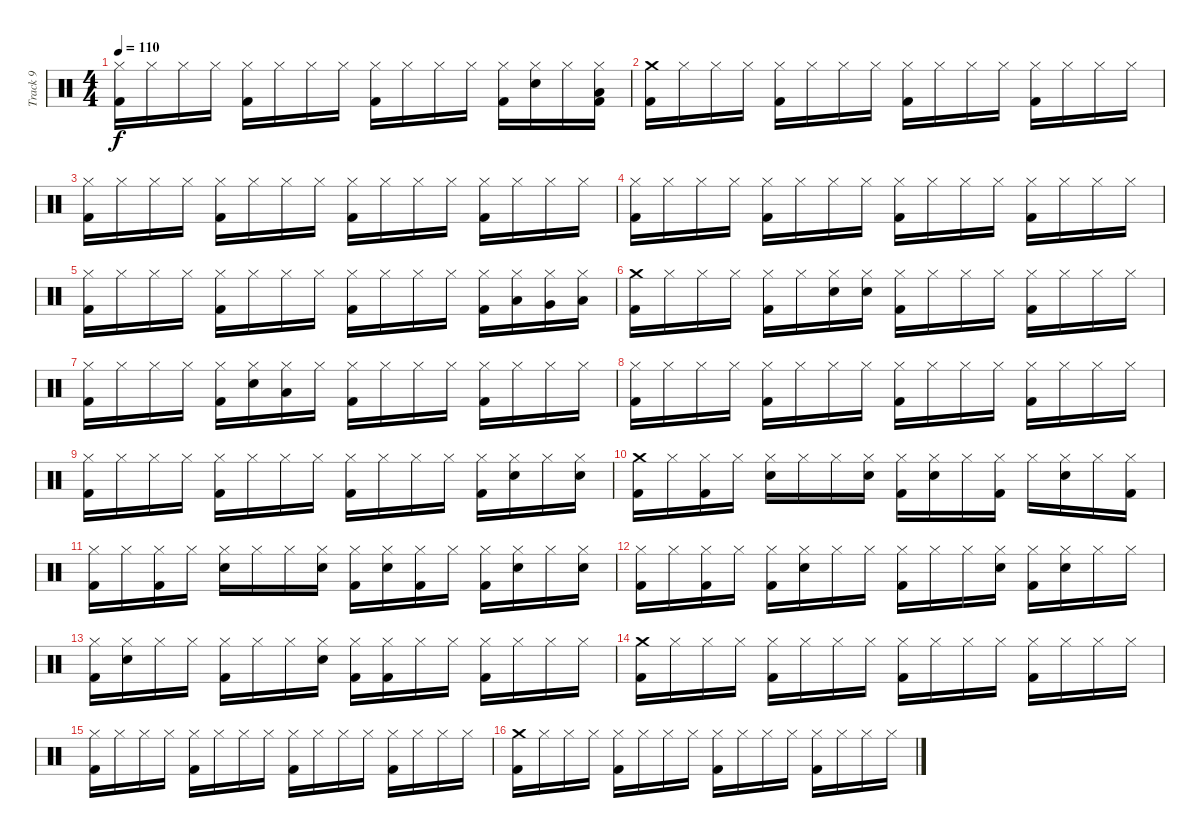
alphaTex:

\track ("Track 9" "Track 9") {instrument percussion}
\staff {score}
\articulation defaults
\ts (4 4)
\tempo 110
\clef neutral
\ks c
("Hi-Hat (closed)" "Kick (hit) 2").16{dy f} "Hi-Hat (closed)".16 "Hi-Hat (closed)".16 "Hi-Hat (closed)".16 ("Hi-Hat (closed)" "Kick (hit) 2").16 "Hi-Hat (closed)".16 "Hi-Hat (closed)".16 "Hi-Hat (closed)".16 ("Hi-Hat (closed)" "Kick (hit) 2").16 "Hi-Hat (closed)".16 "Hi-Hat (closed)".16 "Hi-Hat (closed)".16 ("Hi-Hat (closed)" "Kick (hit) 2").16 ("Hi-Hat (closed)" "Snare (hit) 2").16 "Hi-Hat (closed)".16 ("Hi-Hat (closed)" "Low Floor Tom (hit)" "Kick (hit) 2").16 |
("Crash medium (hit)" "Kick (hit) 2").16 "Hi-Hat (closed)".16 "Hi-Hat (closed)".16 "Hi-Hat (closed)".16 ("Hi-Hat (closed)" "Kick (hit) 2").16 "Hi-Hat (closed)".16 "Hi-Hat (closed)".16 "Hi-Hat (closed)".16 ("Hi-Hat (closed)" "Kick (hit) 2").16 "Hi-Hat (closed)".16 "Hi-Hat (closed)".16 "Hi-Hat (closed)".16 ("Hi-Hat (closed)" "Kick (hit) 2").16 "Hi-Hat (closed)".16 "Hi-Hat (closed)".16 "Hi-Hat (closed)".16 |
("Hi-Hat (closed)" "Kick (hit) 2").16 "Hi-Hat (closed)".16 "Hi-Hat (closed)".16 "Hi-Hat (closed)".16 ("Hi-Hat (closed)" "Kick (hit) 2").16 "Hi-Hat (closed)".16 "Hi-Hat (closed)".16 "Hi-Hat (closed)".16 ("Hi-Hat (closed)" "Kick (hit) 2").16 "Hi-Hat (closed)".16 "Hi-Hat (closed)".16 "Hi-Hat (closed)".16 ("Hi-Hat (closed)" "Kick (hit) 2").16 "Hi-Hat (closed)".16 "Hi-Hat (closed)".16 "Hi-Hat (closed)".16 |
("Hi-Hat (closed)" "Kick (hit) 2").16 "Hi-Hat (closed)".16 "Hi-Hat (closed)".16 "Hi-Hat (closed)".16 ("Hi-Hat (closed)" "Kick (hit) 2").16 "Hi-Hat (closed)".16 "Hi-Hat (closed)".16 "Hi-Hat (closed)".16 ("Hi-Hat (closed)" "Kick (hit) 2").16 "Hi-Hat (closed)".16 "Hi-Hat (closed)".16 "Hi-Hat (closed)".16 ("Hi-Hat (closed)" "Kick (hit) 2").16 "Hi-Hat (closed)".16 "Hi-Hat (closed)".16 "Hi-Hat (closed)".16 |
("Hi-Hat (closed)" "Kick (hit) 2").16 "Hi-Hat (closed)".16 "Hi-Hat (closed)".16 "Hi-Hat (closed)".16 ("Hi-Hat (closed)" "Kick (hit) 2").16 "Hi-Hat (closed)".16 "Hi-Hat (closed)".16 "Hi-Hat (closed)".16 ("Hi-Hat (closed)" "Kick (hit) 2").16 "Hi-Hat (closed)".16 "Hi-Hat (closed)".16 "Hi-Hat (closed)".16 ("Hi-Hat (closed)" "Kick (hit) 2").16 ("Hi-Hat (closed)" "Low Tom (hit)").16 ("Hi-Hat (closed)" "Very Low Tom (hit)").16 ("Hi-Hat (closed)" "Low Floor Tom (hit)").16 |
("Crash medium (hit)" "Kick (hit) 2").16 "Hi-Hat (closed)".16 "Hi-Hat (closed)".16 "Hi-Hat (closed)".16 ("Hi-Hat (closed)" "Kick (hit) 2").16 "Hi-Hat (closed)".16 ("Hi-Hat (closed)" "Snare (hit) 2").16 ("Hi-Hat (closed)" "Snare (hit) 2").16 ("Hi-Hat (closed)" "Kick (hit) 2").16 "Hi-Hat (closed)".16 "Hi-Hat (closed)".16 "Hi-Hat (closed)".16 ("Hi-Hat (closed)" "Kick (hit) 2").16 "Hi-Hat (closed)".16 "Hi-Hat (closed)".16 "Hi-Hat (closed)".16 |
("Hi-Hat (closed)" "Kick (hit) 2").16 "Hi-Hat (closed)".16 "Hi-Hat (closed)".16 "Hi-Hat (closed)".16 ("Hi-Hat (closed)" "Kick (hit) 2").16 ("Hi-Hat (closed)" "Snare (hit) 2").16 ("Hi-Hat (closed)" "Low Floor Tom (hit)").16 "Hi-Hat (closed)".16 ("Hi-Hat (closed)" "Kick (hit) 2").16 "Hi-Hat (closed)".16 "Hi-Hat (closed)".16 "Hi-Hat (closed)".16 ("Hi-Hat (closed)" "Kick (hit) 2").16 "Hi-Hat (closed)".16 "Hi-Hat (closed)".16 "Hi-Hat (closed)".16 |
("Hi-Hat (closed)" "Kick (hit) 2").16 "Hi-Hat (closed)".16 "Hi-Hat (closed)".16 "Hi-Hat (closed)".16 ("Hi-Hat (closed)" "Kick (hit) 2").16 "Hi-Hat (closed)".16 "Hi-Hat (closed)".16 "Hi-Hat (closed)".16 ("Hi-Hat (closed)" "Kick (hit) 2").16 "Hi-Hat (closed)".16 "Hi-Hat (closed)".16 "Hi-Hat (closed)".16 ("Hi-Hat (closed)" "Kick (hit) 2").16 "Hi-Hat (closed)".16 "Hi-Hat (closed)".16 "Hi-Hat (closed)".16 |
("Hi-Hat (closed)" "Kick (hit) 2").16 "Hi-Hat (closed)".16 "Hi-Hat (closed)".16 "Hi-Hat (closed)".16 ("Hi-Hat (closed)" "Kick (hit) 2").16 "Hi-Hat (closed)".16 "Hi-Hat (closed)".16 "Hi-Hat (closed)".16 ("Hi-Hat (closed)" "Kick (hit) 2").16 "Hi-Hat (closed)".16 "Hi-Hat (closed)".16 "Hi-Hat (closed)".16 ("Hi-Hat (closed)" "Kick (hit) 2").16 ("Hi-Hat (closed)" "Snare (hit) 2").16 "Hi-Hat (closed)".16 ("Hi-Hat (closed)" "Snare (hit) 2").16 |
("Crash medium (hit)" "Kick (hit) 2").16 "Hi-Hat (closed)".16 ("Hi-Hat (closed)" "Kick (hit) 2").16 "Hi-Hat (closed)".16 ("Hi-Hat (closed)" "Snare (hit) 2").16 "Hi-Hat (closed)".16 "Hi-Hat (closed)".16 ("Hi-Hat (closed)" "Snare (hit) 2").16 ("Hi-Hat (closed)" "Kick (hit) 2").16 ("Hi-Hat (closed)" "Snare (hit) 2").16 "Hi-Hat (closed)".16 ("Hi-Hat (closed)" "Kick (hit) 2").16 "Hi-Hat (closed)".16 ("Hi-Hat (closed)" "Snare (hit) 2").16 "Hi-Hat (closed)".16 ("Hi-Hat (closed)" "Kick (hit) 2").16 |
("Hi-Hat (closed)" "Kick (hit) 2").16 "Hi-Hat (closed)".16 ("Hi-Hat (closed)" "Kick (hit) 2").16 "Hi-Hat (closed)".16 ("Hi-Hat (closed)" "Snare (hit) 2").16 "Hi-Hat (closed)".16 "Hi-Hat (closed)".16 ("Hi-Hat (closed)" "Snare (hit) 2").16 ("Hi-Hat (closed)" "Kick (hit) 2").16 ("Hi-Hat (closed)" "Snare (hit) 2").16 ("Hi-Hat (closed)" "Kick (hit) 2").16 "Hi-Hat (closed)".16 ("Hi-Hat (closed)" "Kick (hit) 2").16 ("Hi-Hat (closed)" "Snare (hit) 2").16 "Hi-Hat (closed)".16 ("Hi-Hat (closed)" "Snare (hit) 2").16 |
("Hi-Hat (closed)" "Kick (hit) 2").16 "Hi-Hat (closed)".16 ("Hi-Hat (closed)" "Kick (hit) 2").16 "Hi-Hat (closed)".16 ("Hi-Hat (closed)" "Kick (hit) 2").16 ("Hi-Hat (closed)" "Snare (hit) 2").16 "Hi-Hat (closed)".16 "Hi-Hat (closed)".16 ("Hi-Hat (closed)" "Kick (hit) 2").16 "Hi-Hat (closed)".16 "Hi-Hat (closed)".16 ("Hi-Hat (closed)" "Snare (hit) 2").16 ("Hi-Hat (closed)" "Kick (hit) 2").16 ("Hi-Hat (closed)" "Snare (hit) 2").16 "Hi-Hat (closed)".16 "Hi-Hat (closed)".16 |
("Hi-Hat (closed)" "Kick (hit) 2").16 ("Hi-Hat (closed)" "Snare (hit) 2").16 "Hi-Hat (closed)".16 "Hi-Hat (closed)".16 ("Hi-Hat (closed)" "Kick (hit) 2").16 "Hi-Hat (closed)".16 "Hi-Hat (closed)".16 ("Hi-Hat (closed)" "Snare (hit) 2").16 ("Hi-Hat (closed)" "Kick (hit) 2").16 ("Hi-Hat (closed)" "Kick (hit) 2").16 "Hi-Hat (closed)".16 "Hi-Hat (closed)".16 ("Hi-Hat (closed)" "Kick (hit) 2").16 "Hi-Hat (closed)".16 "Hi-Hat (closed)".16 "Hi-Hat (closed)".16 |
("Crash medium (hit)" "Kick (hit) 2").16 "Hi-Hat (closed)".16 "Hi-Hat (closed)".16 "Hi-Hat (closed)".16 ("Hi-Hat (closed)" "Kick (hit) 2").16 "Hi-Hat (closed)".16 "Hi-Hat (closed)".16 "Hi-Hat (closed)".16 ("Hi-Hat (closed)" "Kick (hit) 2").16 "Hi-Hat (closed)".16 "Hi-Hat (closed)".16 "Hi-Hat (closed)".16 ("Hi-Hat (closed)" "Kick (hit) 2").16 "Hi-Hat (closed)".16 "Hi-Hat (closed)".16 "Hi-Hat (closed)".16 |
("Hi-Hat (closed)" "Kick (hit) 2").16 "Hi-Hat (closed)".16 "Hi-Hat (closed)".16 "Hi-Hat (closed)".16 ("Hi-Hat (closed)" "Kick (hit) 2").16 "Hi-Hat (closed)".16 "Hi-Hat (closed)".16 "Hi-Hat (closed)".16 ("Hi-Hat (closed)" "Kick (hit) 2").16 "Hi-Hat (closed)".16 "Hi-Hat (closed)".16 "Hi-Hat (closed)".16 ("Hi-Hat (closed)" "Kick (hit) 2").16 "Hi-Hat (closed)".16 "Hi-Hat (closed)".16 "Hi-Hat (closed)".16 |
("Crash medium (hit)" "Kick (hit) 2").16 "Hi-Hat (closed)".16 "Hi-Hat (closed)".16 "Hi-Hat (closed)".16 ("Hi-Hat (closed)" "Kick (hit) 2").16 "Hi-Hat (closed)".16 "Hi-Hat (closed)".16 "Hi-Hat (closed)".16 ("Hi-Hat (closed)" "Kick (hit) 2").16 "Hi-Hat (closed)".16 "Hi-Hat (closed)".16 "Hi-Hat (closed)".16 ("Hi-Hat (closed)" "Kick (hit) 2").16 "Hi-Hat (closed)".16 "Hi-Hat (closed)".16 "Hi-Hat (closed)".16
